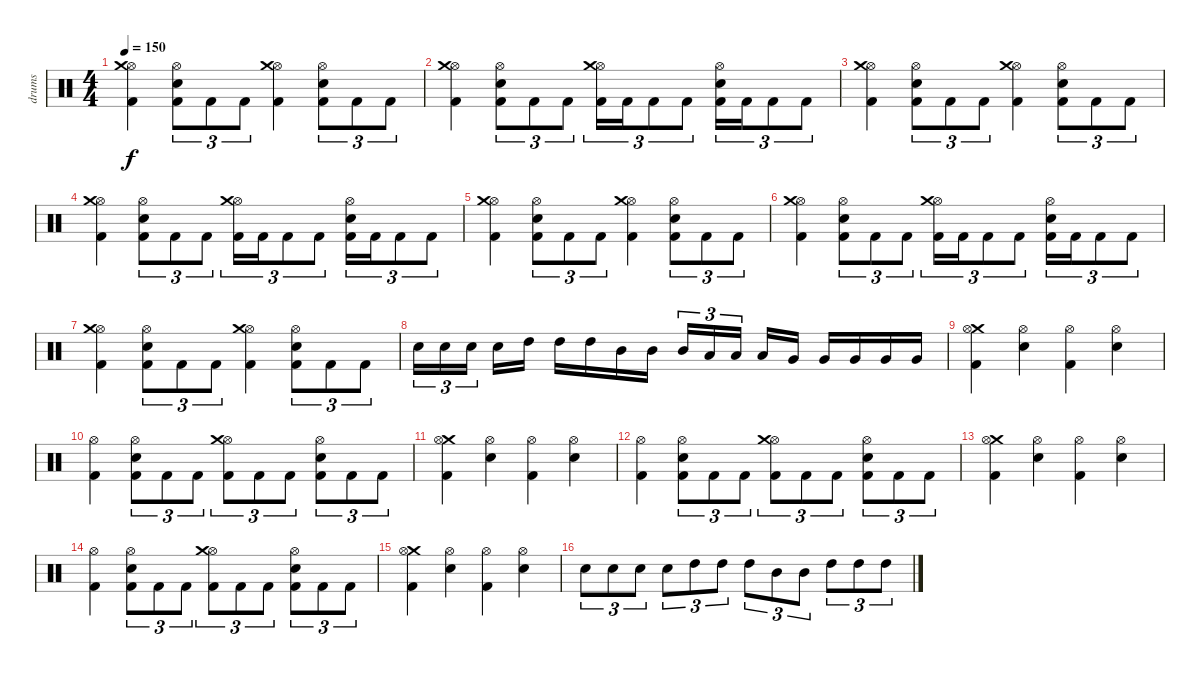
\track ("drums" "drums") {instrument percussion}
\staff {score}
\articulation defaults
\ts (4 4)
\tempo 150
\clef neutral
\ks c
("Hi-Hat (open)" "Crash medium (hit)" "Kick (hit) 2").4{dy f} ("Snare (hit) 2" "Hi-Hat (open)" "Kick (hit) 2").8{tu (3 2)} "Kick (hit) 2".8{tu (3 2)} "Kick (hit) 2".8{tu (3 2)} ("Hi-Hat (open)" "Crash medium (hit)" "Kick (hit) 2").4 ("Snare (hit) 2" "Hi-Hat (open)" "Kick (hit) 2").8{tu (3 2)} "Kick (hit) 2".8{tu (3 2)} "Kick (hit) 2".8{tu (3 2)} |
("Hi-Hat (open)" "Crash medium (hit)" "Kick (hit) 2").4 ("Snare (hit) 2" "Hi-Hat (open)" "Kick (hit) 2").8{tu (3 2)} "Kick (hit) 2".8{tu (3 2)} "Kick (hit) 2".8{tu (3 2)} ("Hi-Hat (open)" "Crash medium (hit)" "Kick (hit) 2").16{tu (3 2)} "Kick (hit) 2".16{tu (3 2)} "Kick (hit) 2".8{tu (3 2)} "Kick (hit) 2".8{tu (3 2)} ("Hi-Hat (open)" "Snare (hit) 2" "Kick (hit) 2").16{tu (3 2)} "Kick (hit) 2".16{tu (3 2)} "Kick (hit) 2".8{tu (3 2)} "Kick (hit) 2".8{tu (3 2)} |
("Hi-Hat (open)" "Crash medium (hit)" "Kick (hit) 2").4 ("Snare (hit) 2" "Hi-Hat (open)" "Kick (hit) 2").8{tu (3 2)} "Kick (hit) 2".8{tu (3 2)} "Kick (hit) 2".8{tu (3 2)} ("Hi-Hat (open)" "Crash medium (hit)" "Kick (hit) 2").4 ("Snare (hit) 2" "Hi-Hat (open)" "Kick (hit) 2").8{tu (3 2)} "Kick (hit) 2".8{tu (3 2)} "Kick (hit) 2".8{tu (3 2)} |
("Hi-Hat (open)" "Crash medium (hit)" "Kick (hit) 2").4 ("Snare (hit) 2" "Hi-Hat (open)" "Kick (hit) 2").8{tu (3 2)} "Kick (hit) 2".8{tu (3 2)} "Kick (hit) 2".8{tu (3 2)} ("Hi-Hat (open)" "Crash medium (hit)" "Kick (hit) 2").16{tu (3 2)} "Kick (hit) 2".16{tu (3 2)} "Kick (hit) 2".8{tu (3 2)} "Kick (hit) 2".8{tu (3 2)} ("Hi-Hat (open)" "Snare (hit) 2" "Kick (hit) 2").16{tu (3 2)} "Kick (hit) 2".16{tu (3 2)} "Kick (hit) 2".8{tu (3 2)} "Kick (hit) 2".8{tu (3 2)} |
("Hi-Hat (open)" "Crash medium (hit)" "Kick (hit) 2").4 ("Snare (hit) 2" "Hi-Hat (open)" "Kick (hit) 2").8{tu (3 2)} "Kick (hit) 2".8{tu (3 2)} "Kick (hit) 2".8{tu (3 2)} ("Hi-Hat (open)" "Crash medium (hit)" "Kick (hit) 2").4 ("Snare (hit) 2" "Hi-Hat (open)" "Kick (hit) 2").8{tu (3 2)} "Kick (hit) 2".8{tu (3 2)} "Kick (hit) 2".8{tu (3 2)} |
("Hi-Hat (open)" "Crash medium (hit)" "Kick (hit) 2").4 ("Snare (hit) 2" "Hi-Hat (open)" "Kick (hit) 2").8{tu (3 2)} "Kick (hit) 2".8{tu (3 2)} "Kick (hit) 2".8{tu (3 2)} ("Hi-Hat (open)" "Crash medium (hit)" "Kick (hit) 2").16{tu (3 2)} "Kick (hit) 2".16{tu (3 2)} "Kick (hit) 2".8{tu (3 2)} "Kick (hit) 2".8{tu (3 2)} ("Hi-Hat (open)" "Snare (hit) 2" "Kick (hit) 2").16{tu (3 2)} "Kick (hit) 2".16{tu (3 2)} "Kick (hit) 2".8{tu (3 2)} "Kick (hit) 2".8{tu (3 2)} |
("Hi-Hat (open)" "Crash medium (hit)" "Kick (hit) 2").4 ("Snare (hit) 2" "Hi-Hat (open)" "Kick (hit) 2").8{tu (3 2)} "Kick (hit) 2".8{tu (3 2)} "Kick (hit) 2".8{tu (3 2)} ("Hi-Hat (open)" "Crash medium (hit)" "Kick (hit) 2").4 ("Snare (hit) 2" "Hi-Hat (open)" "Kick (hit) 2").8{tu (3 2)} "Kick (hit) 2".8{tu (3 2)} "Kick (hit) 2".8{tu (3 2)} |
"Electric Snare (hit)".16{tu (3 2)} "Electric Snare (hit)".16{tu (3 2)} "Electric Snare (hit)".16{tu (3 2) beam splitsecondary} "Electric Snare (hit)".16 "High Tom (hit)".16 "High Tom (hit)".16 "High Tom (hit)".16 "Mid Tom (hit)".16 "Mid Tom (hit)".16 "Mid Tom (hit)".16{tu (3 2)} "Low Tom (hit)".16{tu (3 2)} "Low Tom (hit)".16{tu (3 2) beam splitsecondary} "Low Tom (hit)".16 "Very Low Tom (hit)".16 "Very Low Tom (hit)".16 "Very Low Tom (hit)".16 "Very Low Tom (hit)".16 "Very Low Tom (hit)".16 |
("Crash medium (hit)" "Hi-Hat (open)" "Kick (hit) 2").4 ("Hi-Hat (open)" "Snare (hit) 2").4 ("Hi-Hat (open)" "Kick (hit) 2").4 ("Hi-Hat (open)" "Snare (hit) 2").4 |
("Hi-Hat (open)" "Kick (hit) 2").4 ("Snare (hit) 2" "Hi-Hat (open)" "Kick (hit) 2").8{tu (3 2)} "Kick (hit) 2".8{tu (3 2)} "Kick (hit) 2".8{tu (3 2)} ("Hi-Hat (open)" "Crash medium (hit)" "Kick (hit) 2").8{tu (3 2)} "Kick (hit) 2".8{tu (3 2)} "Kick (hit) 2".8{tu (3 2)} ("Snare (hit) 2" "Hi-Hat (open)" "Kick (hit) 2").8{tu (3 2)} "Kick (hit) 2".8{tu (3 2)} "Kick (hit) 2".8{tu (3 2)} |
("Crash medium (hit)" "Hi-Hat (open)" "Kick (hit) 2").4 ("Hi-Hat (open)" "Snare (hit) 2").4 ("Hi-Hat (open)" "Kick (hit) 2").4 ("Hi-Hat (open)" "Snare (hit) 2").4 |
("Hi-Hat (open)" "Kick (hit) 2").4 ("Snare (hit) 2" "Hi-Hat (open)" "Kick (hit) 2").8{tu (3 2)} "Kick (hit) 2".8{tu (3 2)} "Kick (hit) 2".8{tu (3 2)} ("Hi-Hat (open)" "Crash medium (hit)" "Kick (hit) 2").8{tu (3 2)} "Kick (hit) 2".8{tu (3 2)} "Kick (hit) 2".8{tu (3 2)} ("Snare (hit) 2" "Hi-Hat (open)" "Kick (hit) 2").8{tu (3 2)} "Kick (hit) 2".8{tu (3 2)} "Kick (hit) 2".8{tu (3 2)} |
("Crash medium (hit)" "Hi-Hat (open)" "Kick (hit) 2").4 ("Hi-Hat (open)" "Snare (hit) 2").4 ("Hi-Hat (open)" "Kick (hit) 2").4 ("Hi-Hat (open)" "Snare (hit) 2").4 |
("Hi-Hat (open)" "Kick (hit) 2").4 ("Snare (hit) 2" "Hi-Hat (open)" "Kick (hit) 2").8{tu (3 2)} "Kick (hit) 2".8{tu (3 2)} "Kick (hit) 2".8{tu (3 2)} ("Hi-Hat (open)" "Crash medium (hit)" "Kick (hit) 2").8{tu (3 2)} "Kick (hit) 2".8{tu (3 2)} "Kick (hit) 2".8{tu (3 2)} ("Snare (hit) 2" "Hi-Hat (open)" "Kick (hit) 2").8{tu (3 2)} "Kick (hit) 2".8{tu (3 2)} "Kick (hit) 2".8{tu (3 2)} |
("Crash medium (hit)" "Hi-Hat (open)" "Kick (hit) 2").4 ("Hi-Hat (open)" "Snare (hit) 2").4 ("Hi-Hat (open)" "Kick (hit) 2").4 ("Hi-Hat (open)" "Snare (hit) 2").4 |
"Electric Snare (hit)".8{tu (3 2)} "Electric Snare (hit)".8{tu (3 2)} "Electric Snare (hit)".8{tu (3 2)} "Electric Snare (hit)".8{tu (3 2)} "High Tom (hit)".8{tu (3 2)} "High Tom (hit)".8{tu (3 2)} "High Tom (hit)".8{tu (3 2)} "Mid Tom (hit)".8{tu (3 2)} "Mid Tom (hit)".8{tu (3 2)} "High Tom (hit)".8{tu (3 2)} "High Tom (hit)".8{tu (3 2)} "High Tom (hit)".8{tu (3 2)}
